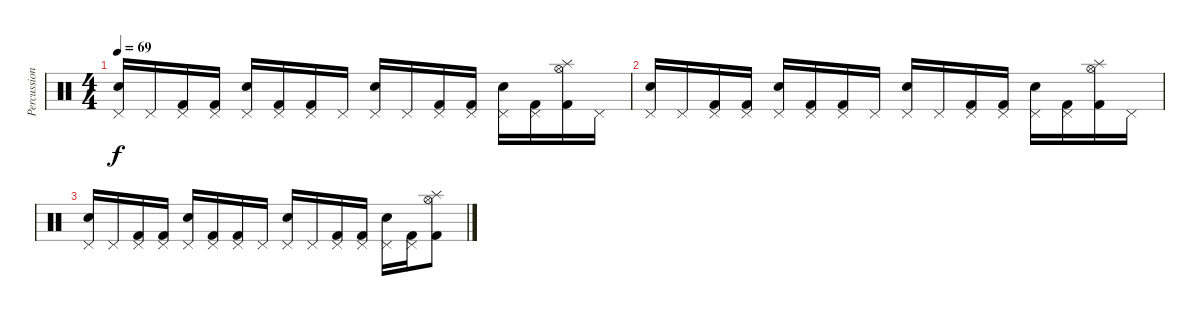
\track ("Percussion" "Percussion") {instrument percussion}
\staff {score}
\articulation defaults
\ts (4 4)
\tempo 69
\clef neutral
\ks c
("Pedal Hi-Hat (hit)" "Snare (hit) 2").16{dy f} "Pedal Hi-Hat (hit)".16 ("Pedal Hi-Hat (hit)" "Kick (hit) 2").16 ("Pedal Hi-Hat (hit)" "Kick (hit) 2").16 ("Pedal Hi-Hat (hit)" "Snare (hit) 2").16 ("Pedal Hi-Hat (hit)" "Kick (hit) 2").16 ("Pedal Hi-Hat (hit)" "Kick (hit) 2").16 "Pedal Hi-Hat (hit)".16 ("Pedal Hi-Hat (hit)" "Snare (hit) 2").16 "Pedal Hi-Hat (hit)".16 ("Pedal Hi-Hat (hit)" "Kick (hit) 2").16 ("Pedal Hi-Hat (hit)" "Kick (hit) 2").16 ("Pedal Hi-Hat (hit)" "Snare (hit) 2").16 ("Pedal Hi-Hat (hit)" "Kick (hit) 2").16 ("Splash (hit)" "Hi-Hat (open)" "Kick (hit) 2").16 "Pedal Hi-Hat (hit)".16 |
("Pedal Hi-Hat (hit)" "Snare (hit) 2").16 "Pedal Hi-Hat (hit)".16 ("Pedal Hi-Hat (hit)" "Kick (hit) 2").16 ("Pedal Hi-Hat (hit)" "Kick (hit) 2").16 ("Pedal Hi-Hat (hit)" "Snare (hit) 2").16 ("Pedal Hi-Hat (hit)" "Kick (hit) 2").16 ("Pedal Hi-Hat (hit)" "Kick (hit) 2").16 "Pedal Hi-Hat (hit)".16 ("Pedal Hi-Hat (hit)" "Snare (hit) 2").16 "Pedal Hi-Hat (hit)".16 ("Pedal Hi-Hat (hit)" "Kick (hit) 2").16 ("Pedal Hi-Hat (hit)" "Kick (hit) 2").16 ("Pedal Hi-Hat (hit)" "Snare (hit) 2").16 ("Pedal Hi-Hat (hit)" "Kick (hit) 2").16 ("Splash (hit)" "Hi-Hat (open)" "Kick (hit) 2").16 "Pedal Hi-Hat (hit)".16 |
("Pedal Hi-Hat (hit)" "Snare (hit) 2").16 "Pedal Hi-Hat (hit)".16 ("Pedal Hi-Hat (hit)" "Kick (hit) 2").16 ("Pedal Hi-Hat (hit)" "Kick (hit) 2").16 ("Pedal Hi-Hat (hit)" "Snare (hit) 2").16 ("Pedal Hi-Hat (hit)" "Kick (hit) 2").16 ("Pedal Hi-Hat (hit)" "Kick (hit) 2").16 "Pedal Hi-Hat (hit)".16 ("Pedal Hi-Hat (hit)" "Snare (hit) 2").16 "Pedal Hi-Hat (hit)".16 ("Pedal Hi-Hat (hit)" "Kick (hit) 2").16 ("Pedal Hi-Hat (hit)" "Kick (hit) 2").16 ("Pedal Hi-Hat (hit)" "Snare (hit) 2").16 ("Pedal Hi-Hat (hit)" "Kick (hit) 2").16 ("Splash (hit)" "Hi-Hat (open)" "Kick (hit) 2").8
